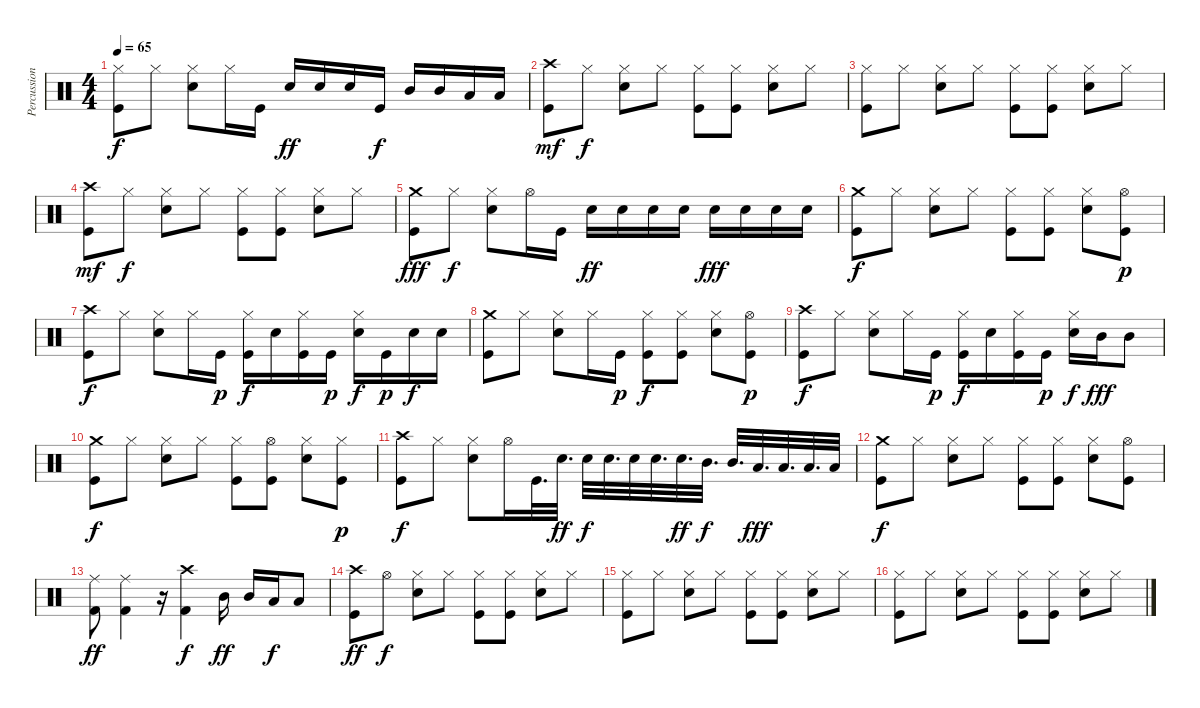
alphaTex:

\track ("Percussion" "Percussion") {instrument percussion}
\staff {score}
\articulation defaults
\ts (4 4)
\tempo 65
\clef neutral
\ks c
("Hi-Hat (closed)" "Kick (hit)").8{dy f} "Hi-Hat (closed)".8 ("Hi-Hat (closed)" "Electric Snare (hit)").8 "Hi-Hat (closed)".16 "Kick (hit)".16 "Electric Snare (hit)".16{dy ff} "Electric Snare (hit)".16 "Electric Snare (hit)".16 "Kick (hit)".16{dy f} "Mid Tom (hit)".16 "Mid Tom (hit)".16 "Low Tom (hit)".16 "Low Tom (hit)".16 |
("Crash high (hit)" "Kick (hit)").8{dy mf} "Hi-Hat (closed)".8{dy f} ("Hi-Hat (closed)" "Electric Snare (hit)").8 "Hi-Hat (closed)".8 ("Hi-Hat (closed)" "Kick (hit)").8 ("Hi-Hat (closed)" "Kick (hit)").8 ("Hi-Hat (closed)" "Electric Snare (hit)").8 "Hi-Hat (closed)".8 |
("Hi-Hat (closed)" "Kick (hit)").8 "Hi-Hat (closed)".8 ("Hi-Hat (closed)" "Electric Snare (hit)").8 "Hi-Hat (closed)".8 ("Hi-Hat (closed)" "Kick (hit)").8 ("Hi-Hat (closed)" "Kick (hit)").8 ("Hi-Hat (closed)" "Electric Snare (hit)").8 "Hi-Hat (closed)".8 |
("Crash high (hit)" "Kick (hit)").8{dy mf} "Hi-Hat (closed)".8{dy f} ("Hi-Hat (closed)" "Electric Snare (hit)").8 "Hi-Hat (closed)".8 ("Hi-Hat (closed)" "Kick (hit)").8 ("Hi-Hat (closed)" "Kick (hit)").8 ("Hi-Hat (closed)" "Electric Snare (hit)").8 "Hi-Hat (closed)".8 |
("Crash medium (hit)" "Kick (hit)").8{dy fff} "Hi-Hat (closed)".8{dy f} ("Hi-Hat (closed)" "Electric Snare (hit)").8 "Hi-Hat (open)".16 "Kick (hit)".16 "Electric Snare (hit)".16{dy ff} "Electric Snare (hit)".16 "Electric Snare (hit)".16 "Electric Snare (hit)".16 "Electric Snare (hit)".16{dy fff} "Electric Snare (hit)".16 "Electric Snare (hit)".16 "Electric Snare (hit)".16 |
("Crash medium (hit)" "Kick (hit)").8{dy f} "Hi-Hat (closed)".8 ("Hi-Hat (closed)" "Electric Snare (hit)").8 "Hi-Hat (closed)".8 ("Hi-Hat (closed)" "Kick (hit)").8 ("Hi-Hat (closed)" "Kick (hit)").8 ("Hi-Hat (closed)" "Electric Snare (hit)").8 ("Hi-Hat (open)" "Kick (hit)").8{dy p} |
("Crash high (hit)" "Kick (hit)").8{dy f} "Hi-Hat (closed)".8 ("Hi-Hat (closed)" "Electric Snare (hit)").8 "Hi-Hat (closed)".16 "Kick (hit)".16{dy p} ("Hi-Hat (closed)" "Kick (hit)").16{dy f} "Electric Snare (hit)".16 ("Hi-Hat (closed)" "Kick (hit)").16 "Kick (hit)".16{dy p} ("Hi-Hat (closed)" "Electric Snare (hit)").16{dy f} "Kick (hit)".16{dy p} "Electric Snare (hit)".16{dy f} "Electric Snare (hit)".16 |
("Crash medium (hit)" "Kick (hit)").8 "Hi-Hat (closed)".8 ("Hi-Hat (closed)" "Electric Snare (hit)").8 "Hi-Hat (closed)".16 "Kick (hit)".16{dy p} ("Hi-Hat (closed)" "Kick (hit)").8{dy f} ("Hi-Hat (closed)" "Kick (hit)").8 ("Hi-Hat (closed)" "Electric Snare (hit)").8 ("Hi-Hat (open)" "Kick (hit)").8{dy p} |
("Crash high (hit)" "Kick (hit)").8{dy f} "Hi-Hat (closed)".8 ("Hi-Hat (closed)" "Electric Snare (hit)").8 "Hi-Hat (closed)".16 "Kick (hit)".16{dy p} ("Hi-Hat (closed)" "Kick (hit)").16{dy f} "Electric Snare (hit)".16 ("Hi-Hat (closed)" "Kick (hit)").16 "Kick (hit)".16{dy p} ("Hi-Hat (closed)" "Electric Snare (hit)").16{dy f} "Mid Tom (hit)".16{dy fff} "Mid Tom (hit)".8 |
("Crash medium (hit)" "Kick (hit)").8{dy f} "Hi-Hat (closed)".8 ("Hi-Hat (closed)" "Electric Snare (hit)").8 "Hi-Hat (closed)".8 ("Hi-Hat (closed)" "Kick (hit)").8 ("Hi-Hat (open)" "Kick (hit)").8 ("Hi-Hat (closed)" "Electric Snare (hit)").8 ("Hi-Hat (closed)" "Kick (hit)").8{dy p} |
("Crash high (hit)" "Kick (hit)").8{dy f} "Hi-Hat (closed)".8 ("Hi-Hat (closed)" "Electric Snare (hit)").8 "Hi-Hat (open)".16 "Kick (hit)".32{d} "Electric Snare (hit)".32{d dy ff} "Electric Snare (hit)".32{dy f} "Electric Snare (hit)".32{d} "Electric Snare (hit)".32 "Electric Snare (hit)".32{d} "Electric Snare (hit)".32{d dy ff} "Mid Tom (hit)".32{d dy f} "Mid Tom (hit)".32{d} "Low Tom (hit)".32{d dy fff} "Low Tom (hit)".32{d} "Low Floor Tom (hit)".32{d} "Low Floor Tom (hit)".32 |
("Crash medium (hit)" "Kick (hit)").8{dy f} "Hi-Hat (closed)".8 ("Hi-Hat (closed)" "Electric Snare (hit)").8 "Hi-Hat (closed)".8 ("Hi-Hat (closed)" "Kick (hit)").8 ("Hi-Hat (closed)" "Kick (hit)").8 ("Hi-Hat (closed)" "Electric Snare (hit)").8 ("Hi-Hat (open)" "Kick (hit)").8 |
("Ride (middle)" "Kick (hit) 2").8{dy ff} ("Ride (middle)" "Kick (hit) 2").4 r.16 ("Crash high (hit)" "Kick (hit) 2").4{dy f} "Mid Tom (hit)".16{dy ff} "Mid Tom (hit)".16 "Low Tom (hit)".16{dy f} "Low Tom (hit)".8 |
("Crash high (hit)" "Kick (hit)").8{dy ff} "Hi-Hat (open)".8{dy f} ("Hi-Hat (closed)" "Electric Snare (hit)").8 "Hi-Hat (closed)".8 ("Hi-Hat (closed)" "Kick (hit)").8 ("Hi-Hat (closed)" "Kick (hit)").8 ("Hi-Hat (closed)" "Electric Snare (hit)").8 "Hi-Hat (closed)".8 |
("Hi-Hat (closed)" "Kick (hit)").8 "Hi-Hat (closed)".8 ("Hi-Hat (closed)" "Electric Snare (hit)").8 "Hi-Hat (closed)".8 ("Hi-Hat (closed)" "Kick (hit)").8 ("Hi-Hat (closed)" "Kick (hit)").8 ("Hi-Hat (closed)" "Electric Snare (hit)").8 "Hi-Hat (closed)".8 |
("Hi-Hat (closed)" "Kick (hit)").8 "Hi-Hat (closed)".8 ("Hi-Hat (closed)" "Electric Snare (hit)").8 "Hi-Hat (closed)".8 ("Hi-Hat (closed)" "Kick (hit)").8 ("Hi-Hat (closed)" "Kick (hit)").8 ("Hi-Hat (closed)" "Electric Snare (hit)").8 "Hi-Hat (closed)".8
